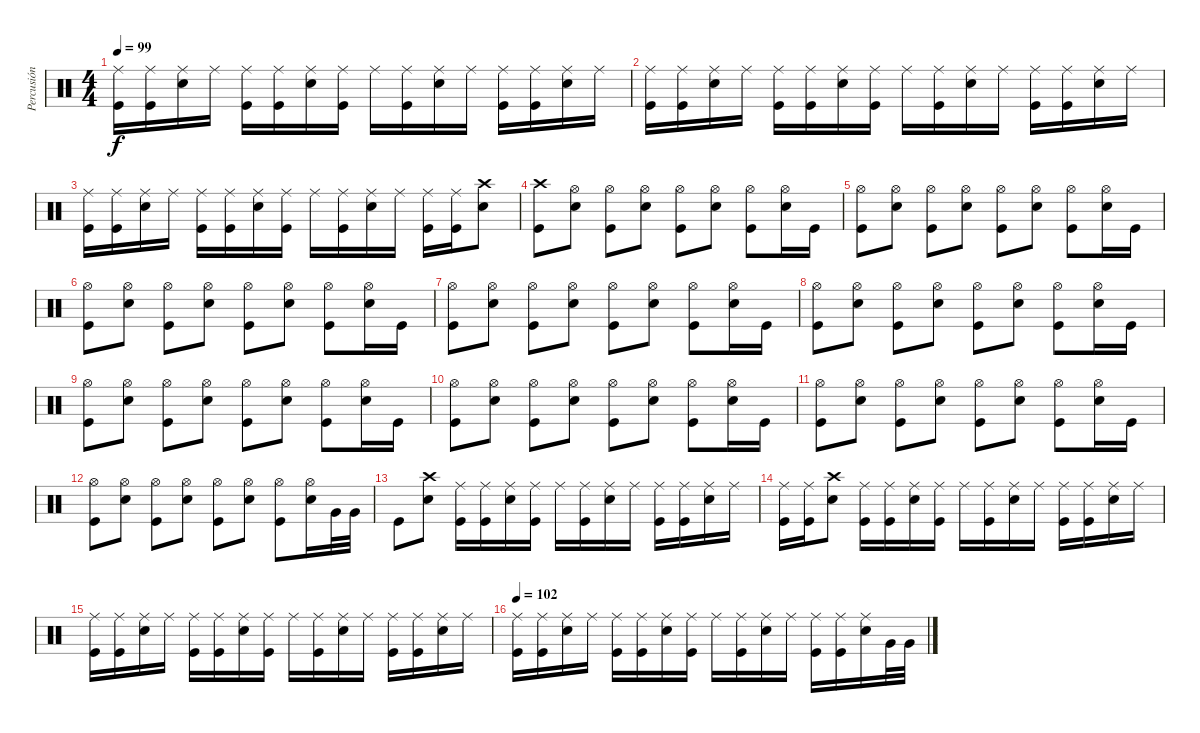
\track ("Percusión" "Percusión") {instrument percussion}
\staff {score}
\articulation defaults
\ts (4 4)
\tempo 99
\clef neutral
\ks c
("Kick (hit)" "Ride (middle)").16{dy f} ("Kick (hit)" "Ride (middle)").16 ("Snare (hit) 2" "Ride (middle)").16 "Ride (middle)".16 ("Kick (hit)" "Ride (middle)").16 ("Kick (hit)" "Ride (middle)").16 ("Snare (hit) 2" "Ride (middle)").16 ("Kick (hit)" "Ride (middle)").16 "Ride (middle)".16 ("Kick (hit)" "Ride (middle)").16 ("Snare (hit) 2" "Ride (middle)").16 "Ride (middle)".16 ("Kick (hit)" "Ride (middle)").16 ("Kick (hit)" "Ride (middle)").16 ("Snare (hit) 2" "Ride (middle)").16 "Ride (middle)".16 |
("Kick (hit)" "Ride (middle)").16 ("Kick (hit)" "Ride (middle)").16 ("Snare (hit) 2" "Ride (middle)").16 "Ride (middle)".16 ("Kick (hit)" "Ride (middle)").16 ("Kick (hit)" "Ride (middle)").16 ("Snare (hit) 2" "Ride (middle)").16 ("Kick (hit)" "Ride (middle)").16 "Ride (middle)".16 ("Kick (hit)" "Ride (middle)").16 ("Snare (hit) 2" "Ride (middle)").16 "Ride (middle)".16 ("Kick (hit)" "Ride (middle)").16 ("Kick (hit)" "Ride (middle)").16 ("Snare (hit) 2" "Ride (middle)").16 "Ride (middle)".16 |
("Kick (hit)" "Ride (middle)").16 ("Kick (hit)" "Ride (middle)").16 ("Snare (hit) 2" "Ride (middle)").16 "Ride (middle)".16 ("Kick (hit)" "Ride (middle)").16 ("Kick (hit)" "Ride (middle)").16 ("Snare (hit) 2" "Ride (middle)").16 ("Kick (hit)" "Ride (middle)").16 "Ride (middle)".16 ("Kick (hit)" "Ride (middle)").16 ("Snare (hit) 2" "Ride (middle)").16 "Ride (middle)".16 ("Kick (hit)" "Ride (middle)").16 ("Kick (hit)" "Ride (middle)").16 ("Snare (hit) 2" "Crash high (hit)").8 |
("Kick (hit)" "Crash high (hit)").8 ("Snare (hit) 2" "Hi-Hat (open)").8 ("Kick (hit)" "Hi-Hat (open)").8 ("Snare (hit) 2" "Hi-Hat (open)").8 ("Kick (hit)" "Hi-Hat (open)").8 ("Snare (hit) 2" "Hi-Hat (open)").8 ("Kick (hit)" "Hi-Hat (open)").8 ("Snare (hit) 2" "Hi-Hat (open)").16 "Kick (hit)".16 |
("Kick (hit)" "Hi-Hat (open)").8 ("Snare (hit) 2" "Hi-Hat (open)").8 ("Kick (hit)" "Hi-Hat (open)").8 ("Snare (hit) 2" "Hi-Hat (open)").8 ("Kick (hit)" "Hi-Hat (open)").8 ("Snare (hit) 2" "Hi-Hat (open)").8 ("Kick (hit)" "Hi-Hat (open)").8 ("Snare (hit) 2" "Hi-Hat (open)").16 "Kick (hit)".16 |
("Kick (hit)" "Hi-Hat (open)").8 ("Snare (hit) 2" "Hi-Hat (open)").8 ("Kick (hit)" "Hi-Hat (open)").8 ("Snare (hit) 2" "Hi-Hat (open)").8 ("Kick (hit)" "Hi-Hat (open)").8 ("Snare (hit) 2" "Hi-Hat (open)").8 ("Kick (hit)" "Hi-Hat (open)").8 ("Snare (hit) 2" "Hi-Hat (open)").16 "Kick (hit)".16 |
("Kick (hit)" "Hi-Hat (open)").8 ("Snare (hit) 2" "Hi-Hat (open)").8 ("Kick (hit)" "Hi-Hat (open)").8 ("Snare (hit) 2" "Hi-Hat (open)").8 ("Kick (hit)" "Hi-Hat (open)").8 ("Snare (hit) 2" "Hi-Hat (open)").8 ("Kick (hit)" "Hi-Hat (open)").8 ("Snare (hit) 2" "Hi-Hat (open)").16 "Kick (hit)".16 |
("Kick (hit)" "Hi-Hat (open)").8 ("Snare (hit) 2" "Hi-Hat (open)").8 ("Kick (hit)" "Hi-Hat (open)").8 ("Snare (hit) 2" "Hi-Hat (open)").8 ("Kick (hit)" "Hi-Hat (open)").8 ("Snare (hit) 2" "Hi-Hat (open)").8 ("Kick (hit)" "Hi-Hat (open)").8 ("Snare (hit) 2" "Hi-Hat (open)").16 "Kick (hit)".16 |
("Kick (hit)" "Hi-Hat (open)").8 ("Snare (hit) 2" "Hi-Hat (open)").8 ("Kick (hit)" "Hi-Hat (open)").8 ("Snare (hit) 2" "Hi-Hat (open)").8 ("Kick (hit)" "Hi-Hat (open)").8 ("Snare (hit) 2" "Hi-Hat (open)").8 ("Kick (hit)" "Hi-Hat (open)").8 ("Snare (hit) 2" "Hi-Hat (open)").16 "Kick (hit)".16 |
("Kick (hit)" "Hi-Hat (open)").8 ("Snare (hit) 2" "Hi-Hat (open)").8 ("Kick (hit)" "Hi-Hat (open)").8 ("Snare (hit) 2" "Hi-Hat (open)").8 ("Kick (hit)" "Hi-Hat (open)").8 ("Snare (hit) 2" "Hi-Hat (open)").8 ("Kick (hit)" "Hi-Hat (open)").8 ("Snare (hit) 2" "Hi-Hat (open)").16 "Kick (hit)".16 |
("Kick (hit)" "Hi-Hat (open)").8 ("Snare (hit) 2" "Hi-Hat (open)").8 ("Kick (hit)" "Hi-Hat (open)").8 ("Snare (hit) 2" "Hi-Hat (open)").8 ("Kick (hit)" "Hi-Hat (open)").8 ("Snare (hit) 2" "Hi-Hat (open)").8 ("Kick (hit)" "Hi-Hat (open)").8 ("Snare (hit) 2" "Hi-Hat (open)").16 "Kick (hit)".16 |
("Kick (hit)" "Hi-Hat (open)").8 ("Snare (hit) 2" "Hi-Hat (open)").8 ("Kick (hit)" "Hi-Hat (open)").8 ("Snare (hit) 2" "Hi-Hat (open)").8 ("Kick (hit)" "Hi-Hat (open)").8 ("Snare (hit) 2" "Hi-Hat (open)").8 ("Kick (hit)" "Hi-Hat (open)").8 ("Snare (hit) 2" "Hi-Hat (open)").16 "Very Low Tom (hit)".32 "Very Low Tom (hit)".32 |
"Kick (hit)".8 ("Snare (hit) 2" "Crash high (hit)").8 ("Kick (hit)" "Ride (middle)").16 ("Kick (hit)" "Ride (middle)").16 ("Snare (hit) 2" "Ride (middle)").16 ("Kick (hit)" "Ride (middle)").16 "Ride (middle)".16 ("Kick (hit)" "Ride (middle)").16 ("Snare (hit) 2" "Ride (middle)").16 "Ride (middle)".16 ("Kick (hit)" "Ride (middle)").16 ("Kick (hit)" "Ride (middle)").16 ("Snare (hit) 2" "Ride (middle)").16 "Ride (middle)".16 |
("Kick (hit)" "Ride (middle)").16 ("Kick (hit)" "Ride (middle)").16 ("Snare (hit) 2" "Crash high (hit)").8 ("Kick (hit)" "Ride (middle)").16 ("Kick (hit)" "Ride (middle)").16 ("Snare (hit) 2" "Ride (middle)").16 ("Kick (hit)" "Ride (middle)").16 "Ride (middle)".16 ("Kick (hit)" "Ride (middle)").16 ("Snare (hit) 2" "Ride (middle)").16 "Ride (middle)".16 ("Kick (hit)" "Ride (middle)").16 ("Kick (hit)" "Ride (middle)").16 ("Snare (hit) 2" "Ride (middle)").16 "Ride (middle)".16 |
("Kick (hit)" "Ride (middle)").16 ("Kick (hit)" "Ride (middle)").16 ("Snare (hit) 2" "Ride (middle)").16 "Ride (middle)".16 ("Kick (hit)" "Ride (middle)").16 ("Kick (hit)" "Ride (middle)").16 ("Snare (hit) 2" "Ride (middle)").16 ("Kick (hit)" "Ride (middle)").16 "Ride (middle)".16 ("Kick (hit)" "Ride (middle)").16 ("Snare (hit) 2" "Ride (middle)").16 "Ride (middle)".16 ("Kick (hit)" "Ride (middle)").16 ("Kick (hit)" "Ride (middle)").16 ("Snare (hit) 2" "Ride (middle)").16 "Ride (middle)".16 |
\tempo 102
("Kick (hit)" "Ride (middle)").16 ("Kick (hit)" "Ride (middle)").16 ("Snare (hit) 2" "Ride (middle)").16 "Ride (middle)".16 ("Kick (hit)" "Ride (middle)").16 ("Kick (hit)" "Ride (middle)").16 ("Snare (hit) 2" "Ride (middle)").16 ("Kick (hit)" "Ride (middle)").16 "Ride (middle)".16 ("Kick (hit)" "Ride (middle)").16 ("Snare (hit) 2" "Ride (middle)").16 "Ride (middle)".16 ("Kick (hit)" "Ride (middle)").16 ("Kick (hit)" "Ride (middle)").16 ("Snare (hit) 2" "Ride (middle)").16 "Very Low Tom (hit)".32 "Very Low Tom (hit)".32
